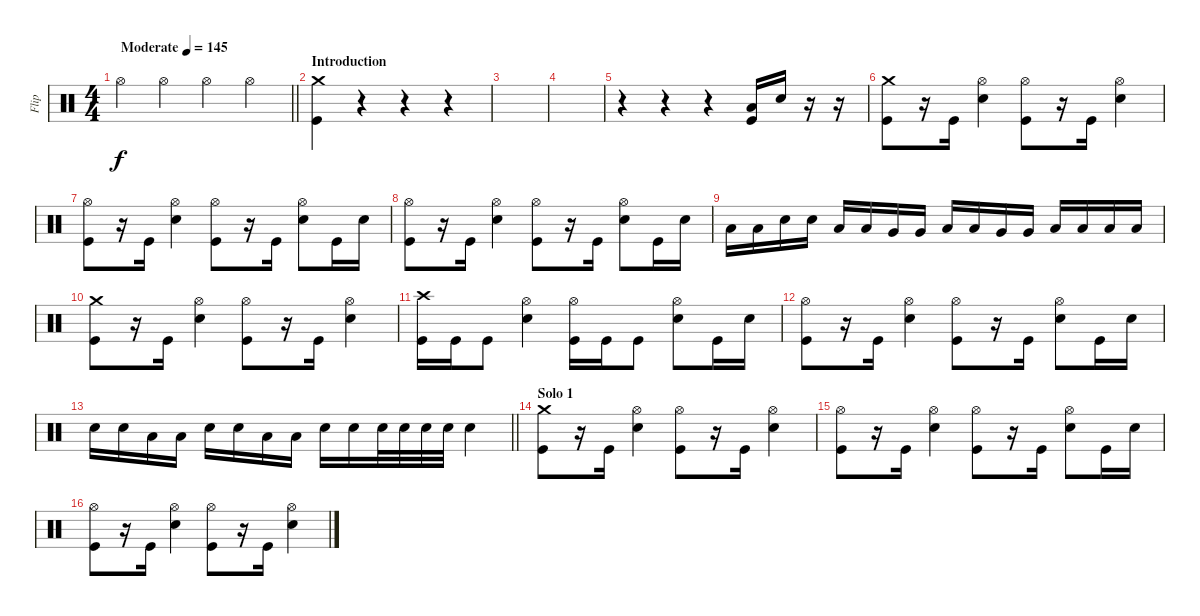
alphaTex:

\track ("Flip" "Flip") {instrument percussion}
\staff {score}
\articulation defaults
\ts (4 4)
\tempo (145 "Moderate")
\clef neutral
\barLineRight lightlight
\ks c "Hi-Hat (open)".4{dy f} "Hi-Hat (open)".4 "Hi-Hat (open)".4 "Hi-Hat (open)".4
|
\section ("" "Introduction")
("Crash medium (hit)" "Kick (hit)").4 r.4 r.4 r.4 |
|
|
r.4 r.4 r.4 ("Low Floor Tom (hit)" "Kick (hit)").16 "Snare (hit) 2".16 r.16 r.16 |
("Crash medium (hit)" "Kick (hit)").8 r.16 "Kick (hit)".16 ("Hi-Hat (open)" "Snare (hit) 2").4 ("Hi-Hat (open)" "Kick (hit)").8 r.16 "Kick (hit)".16 ("Hi-Hat (open)" "Snare (hit) 2").4 |
("Hi-Hat (open)" "Kick (hit)").8 r.16 "Kick (hit)".16 ("Hi-Hat (open)" "Snare (hit) 2").4 ("Hi-Hat (open)" "Kick (hit)").8 r.16 "Kick (hit)".16 ("Hi-Hat (open)" "Snare (hit) 2").8 "Kick (hit)".16 "Snare (hit) 2".16 |
("Hi-Hat (open)" "Kick (hit)").8 r.16 "Kick (hit)".16 ("Hi-Hat (open)" "Snare (hit) 2").4 ("Hi-Hat (open)" "Kick (hit)").8 r.16 "Kick (hit)".16 ("Hi-Hat (open)" "Snare (hit) 2").8 "Kick (hit)".16 "Snare (hit) 2".16 |
"Low Tom (hit)".16 "Low Tom (hit)".16 "Snare (hit) 2".16 "Snare (hit) 2".16 "Low Tom (hit)".16 "Low Tom (hit)".16 "Very Low Tom (hit)".16 "Very Low Tom (hit)".16 "Low Floor Tom (hit)".16 "Low Floor Tom (hit)".16 "Very Low Tom (hit)".16 "Very Low Tom (hit)".16 "Low Tom (hit)".16 "Low Tom (hit)".16 "Low Tom (hit)".16 "Low Tom (hit)".16 |
("Crash medium (hit)" "Kick (hit)").8 r.16 "Kick (hit)".16 ("Hi-Hat (open)" "Snare (hit) 2").4 ("Hi-Hat (open)" "Kick (hit)").8 r.16 "Kick (hit)".16 ("Hi-Hat (open)" "Snare (hit) 2").4 |
("Crash high (hit)" "Kick (hit)").16 "Kick (hit)".16 "Kick (hit)".8 ("Hi-Hat (open)" "Snare (hit) 2").4 ("Hi-Hat (open)" "Kick (hit)").16 "Kick (hit)".16 "Kick (hit)".8 ("Hi-Hat (open)" "Snare (hit) 2").8 "Kick (hit)".16 "Snare (hit) 2".16 |
("Hi-Hat (open)" "Kick (hit)").8 r.16 "Kick (hit)".16 ("Hi-Hat (open)" "Snare (hit) 2").4 ("Hi-Hat (open)" "Kick (hit)").8 r.16 "Kick (hit)".16 ("Hi-Hat (open)" "Snare (hit) 2").8 "Kick (hit)".16 "Snare (hit) 2".16 |
\barLineRight lightlight "Snare (hit) 2".16 "Snare (hit) 2".16 "Low Tom (hit)".16 "Low Tom (hit)".16 "Snare (hit) 2".16 "Snare (hit) 2".16 "Low Tom (hit)".16 "Low Tom (hit)".16 "Snare (hit) 2".16 "Snare (hit) 2".16 "Snare (hit) 2".32 "Snare (hit) 2".32 "Snare (hit) 2".32 "Snare (hit) 2".32 "Snare (hit) 2".4
|
\section ("" "Solo 1")
("Crash medium (hit)" "Kick (hit)").8 r.16 "Kick (hit)".16 ("Hi-Hat (open)" "Snare (hit) 2").4 ("Hi-Hat (open)" "Kick (hit)").8 r.16 "Kick (hit)".16 ("Hi-Hat (open)" "Snare (hit) 2").4 |
("Hi-Hat (open)" "Kick (hit)").8 r.16 "Kick (hit)".16 ("Hi-Hat (open)" "Snare (hit) 2").4 ("Hi-Hat (open)" "Kick (hit)").8 r.16 "Kick (hit)".16 ("Hi-Hat (open)" "Snare (hit) 2").8 "Kick (hit)".16 "Snare (hit) 2".16 |
("Hi-Hat (open)" "Kick (hit)").8 r.16 "Kick (hit)".16 ("Hi-Hat (open)" "Snare (hit) 2").4 ("Hi-Hat (open)" "Kick (hit)").8 r.16 "Kick (hit)".16 ("Hi-Hat (open)" "Snare (hit) 2").4
